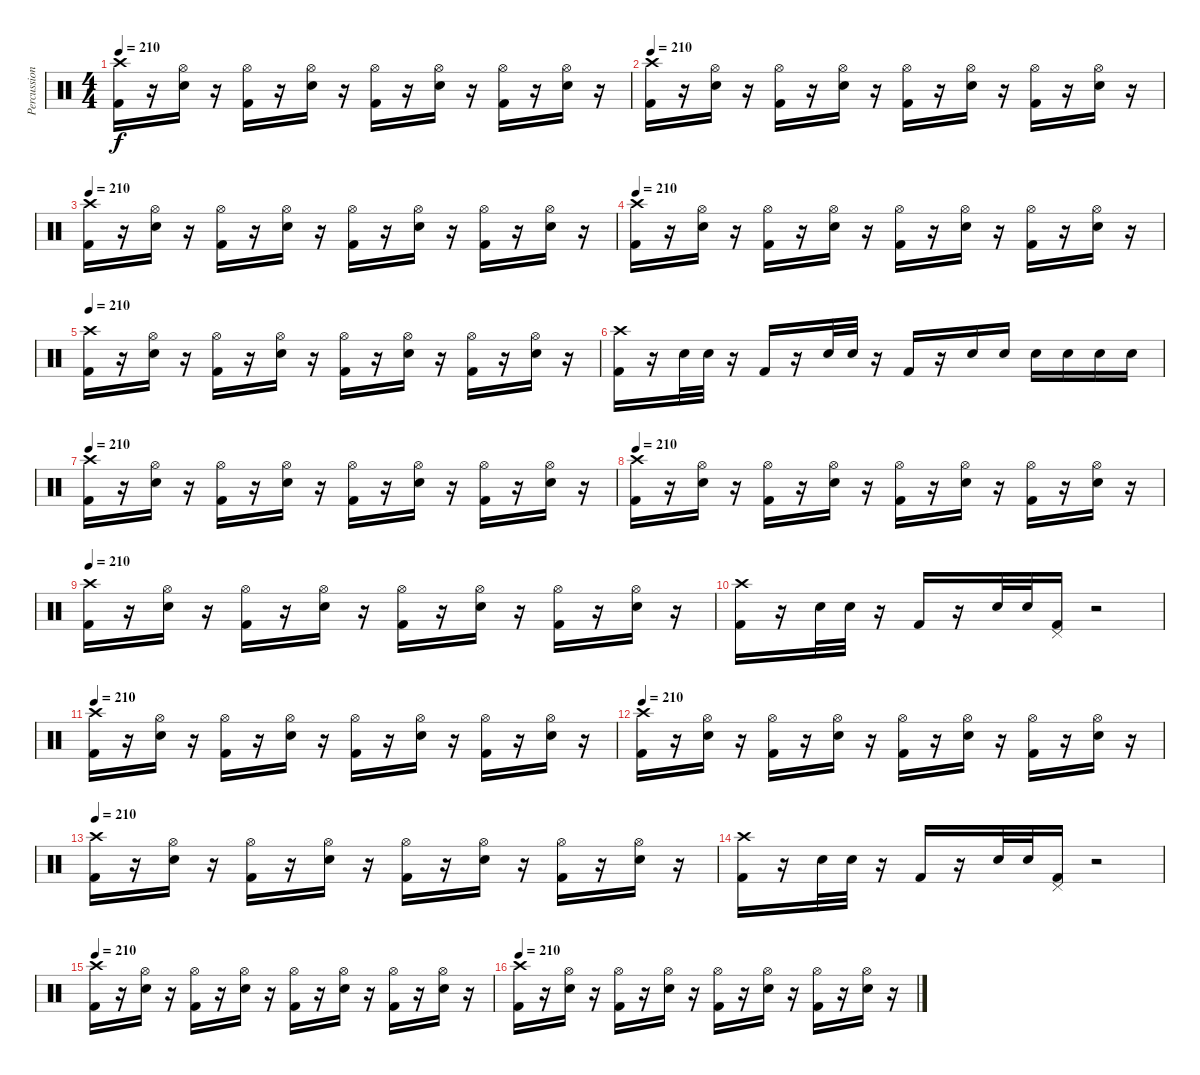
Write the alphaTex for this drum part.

\track ("Percussioni" "Percussion") {instrument percussion}
\staff {score}
\articulation defaults
\ts (4 4)
\tempo 210
\clef neutral
\ks c
("Kick (hit) 2" "Crash high (hit)").16{dy f} r.16 ("Snare (hit) 2" "Hi-Hat (open)").16 r.16 ("Kick (hit) 2" "Hi-Hat (open)").16 r.16 ("Snare (hit) 2" "Hi-Hat (open)").16 r.16 ("Kick (hit) 2" "Hi-Hat (open)").16 r.16 ("Snare (hit) 2" "Hi-Hat (open)").16 r.16 ("Kick (hit) 2" "Hi-Hat (open)").16 r.16 ("Snare (hit) 2" "Hi-Hat (open)").16 r.16 |
\tempo 210
("Kick (hit) 2" "Crash high (hit)").16 r.16 ("Snare (hit) 2" "Hi-Hat (open)").16 r.16 ("Kick (hit) 2" "Hi-Hat (open)").16 r.16 ("Snare (hit) 2" "Hi-Hat (open)").16 r.16 ("Kick (hit) 2" "Hi-Hat (open)").16 r.16 ("Snare (hit) 2" "Hi-Hat (open)").16 r.16 ("Kick (hit) 2" "Hi-Hat (open)").16 r.16 ("Snare (hit) 2" "Hi-Hat (open)").16 r.16 |
\tempo 210
("Kick (hit) 2" "Crash high (hit)").16 r.16 ("Snare (hit) 2" "Hi-Hat (open)").16 r.16 ("Kick (hit) 2" "Hi-Hat (open)").16 r.16 ("Snare (hit) 2" "Hi-Hat (open)").16 r.16 ("Kick (hit) 2" "Hi-Hat (open)").16 r.16 ("Snare (hit) 2" "Hi-Hat (open)").16 r.16 ("Kick (hit) 2" "Hi-Hat (open)").16 r.16 ("Snare (hit) 2" "Hi-Hat (open)").16 r.16 |
\tempo 210
("Kick (hit) 2" "Crash high (hit)").16 r.16 ("Snare (hit) 2" "Hi-Hat (open)").16 r.16 ("Kick (hit) 2" "Hi-Hat (open)").16 r.16 ("Snare (hit) 2" "Hi-Hat (open)").16 r.16 ("Kick (hit) 2" "Hi-Hat (open)").16 r.16 ("Snare (hit) 2" "Hi-Hat (open)").16 r.16 ("Kick (hit) 2" "Hi-Hat (open)").16 r.16 ("Snare (hit) 2" "Hi-Hat (open)").16 r.16 |
\tempo 210
("Kick (hit) 2" "Crash high (hit)").16 r.16 ("Snare (hit) 2" "Hi-Hat (open)").16 r.16 ("Kick (hit) 2" "Hi-Hat (open)").16 r.16 ("Snare (hit) 2" "Hi-Hat (open)").16 r.16 ("Kick (hit) 2" "Hi-Hat (open)").16 r.16 ("Snare (hit) 2" "Hi-Hat (open)").16 r.16 ("Kick (hit) 2" "Hi-Hat (open)").16 r.16 ("Snare (hit) 2" "Hi-Hat (open)").16 r.16 |
("Crash high (hit)" "Kick (hit) 2").16 r.16 "Snare (hit) 2".32 "Snare (hit) 2".32 r.16 "Kick (hit) 2".16 r.16 "Snare (hit) 2".32 "Snare (hit) 2".32 r.16 "Kick (hit) 2".16 r.16 "Snare (hit) 2".16 "Snare (hit) 2".16 "Snare (hit) 2".16 "Snare (hit) 2".16 "Snare (hit) 2".16 "Snare (hit) 2".16 |
\tempo 210
("Kick (hit) 2" "Crash high (hit)").16 r.16 ("Snare (hit) 2" "Hi-Hat (open)").16 r.16 ("Kick (hit) 2" "Hi-Hat (open)").16 r.16 ("Snare (hit) 2" "Hi-Hat (open)").16 r.16 ("Kick (hit) 2" "Hi-Hat (open)").16 r.16 ("Snare (hit) 2" "Hi-Hat (open)").16 r.16 ("Kick (hit) 2" "Hi-Hat (open)").16 r.16 ("Snare (hit) 2" "Hi-Hat (open)").16 r.16 |
\tempo 210
("Kick (hit) 2" "Crash high (hit)").16 r.16 ("Snare (hit) 2" "Hi-Hat (open)").16 r.16 ("Kick (hit) 2" "Hi-Hat (open)").16 r.16 ("Snare (hit) 2" "Hi-Hat (open)").16 r.16 ("Kick (hit) 2" "Hi-Hat (open)").16 r.16 ("Snare (hit) 2" "Hi-Hat (open)").16 r.16 ("Kick (hit) 2" "Hi-Hat (open)").16 r.16 ("Snare (hit) 2" "Hi-Hat (open)").16 r.16 |
\tempo 210
("Kick (hit) 2" "Crash high (hit)").16 r.16 ("Snare (hit) 2" "Hi-Hat (open)").16 r.16 ("Kick (hit) 2" "Hi-Hat (open)").16 r.16 ("Snare (hit) 2" "Hi-Hat (open)").16 r.16 ("Kick (hit) 2" "Hi-Hat (open)").16 r.16 ("Snare (hit) 2" "Hi-Hat (open)").16 r.16 ("Kick (hit) 2" "Hi-Hat (open)").16 r.16 ("Snare (hit) 2" "Hi-Hat (open)").16 r.16 |
("Crash high (hit)" "Kick (hit) 2").16 r.16 "Snare (hit) 2".32 "Snare (hit) 2".32 r.16 "Kick (hit) 2".16 r.16 "Snare (hit) 2".32 "Snare (hit) 2".32 ("Pedal Hi-Hat (hit)" "Kick (hit) 2").16 r.2 |
\tempo 210
("Kick (hit) 2" "Crash high (hit)").16 r.16 ("Snare (hit) 2" "Hi-Hat (open)").16 r.16 ("Kick (hit) 2" "Hi-Hat (open)").16 r.16 ("Snare (hit) 2" "Hi-Hat (open)").16 r.16 ("Kick (hit) 2" "Hi-Hat (open)").16 r.16 ("Snare (hit) 2" "Hi-Hat (open)").16 r.16 ("Kick (hit) 2" "Hi-Hat (open)").16 r.16 ("Snare (hit) 2" "Hi-Hat (open)").16 r.16 |
\tempo 210
("Kick (hit) 2" "Crash high (hit)").16 r.16 ("Snare (hit) 2" "Hi-Hat (open)").16 r.16 ("Kick (hit) 2" "Hi-Hat (open)").16 r.16 ("Snare (hit) 2" "Hi-Hat (open)").16 r.16 ("Kick (hit) 2" "Hi-Hat (open)").16 r.16 ("Snare (hit) 2" "Hi-Hat (open)").16 r.16 ("Kick (hit) 2" "Hi-Hat (open)").16 r.16 ("Snare (hit) 2" "Hi-Hat (open)").16 r.16 |
\tempo 210
("Kick (hit) 2" "Crash high (hit)").16 r.16 ("Snare (hit) 2" "Hi-Hat (open)").16 r.16 ("Kick (hit) 2" "Hi-Hat (open)").16 r.16 ("Snare (hit) 2" "Hi-Hat (open)").16 r.16 ("Kick (hit) 2" "Hi-Hat (open)").16 r.16 ("Snare (hit) 2" "Hi-Hat (open)").16 r.16 ("Kick (hit) 2" "Hi-Hat (open)").16 r.16 ("Snare (hit) 2" "Hi-Hat (open)").16 r.16 |
("Crash high (hit)" "Kick (hit) 2").16 r.16 "Snare (hit) 2".32 "Snare (hit) 2".32 r.16 "Kick (hit) 2".16 r.16 "Snare (hit) 2".32 "Snare (hit) 2".32 ("Pedal Hi-Hat (hit)" "Kick (hit) 2").16 r.2 |
\tempo 210
("Kick (hit) 2" "Crash high (hit)").16 r.16 ("Snare (hit) 2" "Hi-Hat (open)").16 r.16 ("Kick (hit) 2" "Hi-Hat (open)").16 r.16 ("Snare (hit) 2" "Hi-Hat (open)").16 r.16 ("Kick (hit) 2" "Hi-Hat (open)").16 r.16 ("Snare (hit) 2" "Hi-Hat (open)").16 r.16 ("Kick (hit) 2" "Hi-Hat (open)").16 r.16 ("Snare (hit) 2" "Hi-Hat (open)").16 r.16 |
\tempo 210
("Kick (hit) 2" "Crash high (hit)").16 r.16 ("Snare (hit) 2" "Hi-Hat (open)").16 r.16 ("Kick (hit) 2" "Hi-Hat (open)").16 r.16 ("Snare (hit) 2" "Hi-Hat (open)").16 r.16 ("Kick (hit) 2" "Hi-Hat (open)").16 r.16 ("Snare (hit) 2" "Hi-Hat (open)").16 r.16 ("Kick (hit) 2" "Hi-Hat (open)").16 r.16 ("Snare (hit) 2" "Hi-Hat (open)").16 r.16
